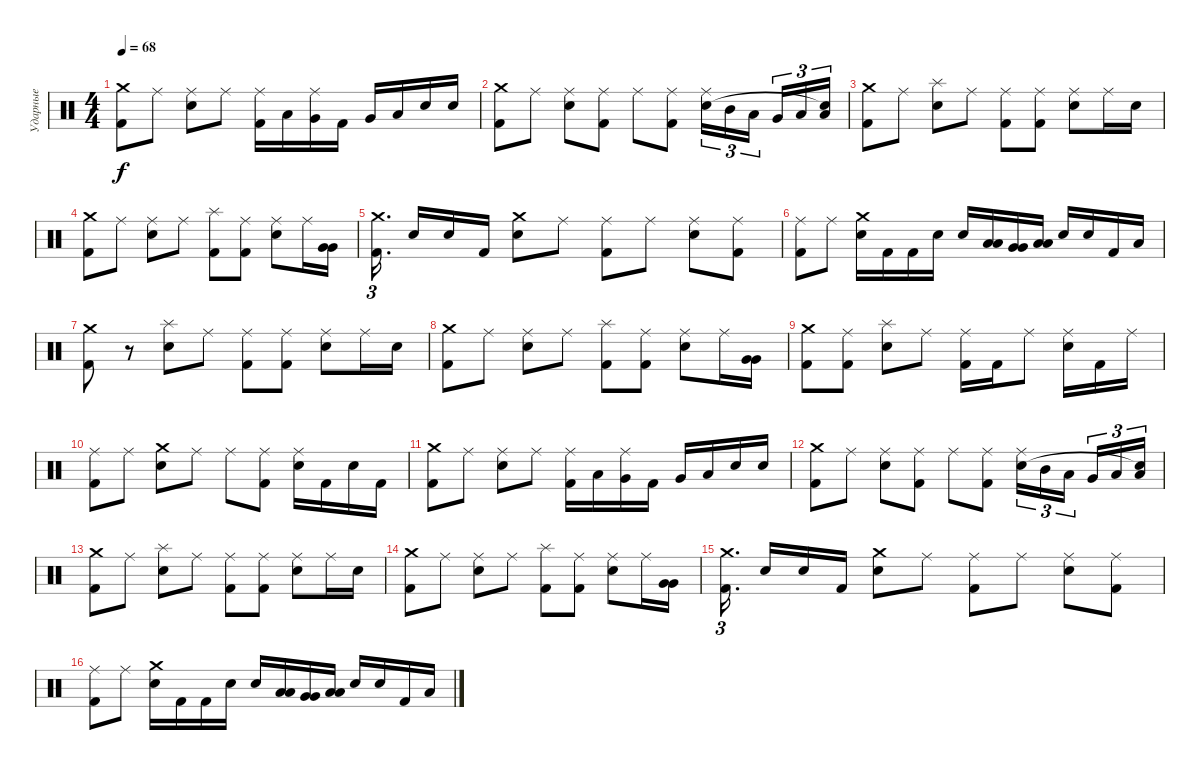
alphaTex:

\track ("Ударные" "Ударные") {instrument percussion}
\staff {score}
\articulation defaults
\ts (4 4)
\tempo 68
\clef neutral
\ks c
("Crash medium (hit)" "Kick (hit) 2").8{dy f} "Ride (middle)".8 ("Ride (middle)" "Snare (hit) 2").8 "Ride (middle)".8 ("Ride (middle)" "Kick (hit) 2").16 "Low Tom (hit)".16 ("Very Low Tom (hit)" "Ride (middle)").16 "Kick (hit) 2".16 "Very Low Tom (hit)".16 "Low Floor Tom (hit)".16 "Snare (hit) 2".16 "Snare (hit) 2".16 |
("Crash medium (hit)" "Kick (hit) 2").8 "Ride (middle)".8 ("Ride (middle)" "Snare (hit) 2").8 ("Ride (middle)" "Kick (hit) 2").8 "Ride (middle)".8 ("Ride (middle)" "Kick (hit) 2").8 ("Ride (middle)" "Snare (hit) 2").16{tu (3 2)} "Mid Tom (hit)".16{tu (3 2)} "Low Tom (hit)".16{tu (3 2) beam splitsecondary} "Very Low Tom (hit)".16{tu (3 2)} "Low Floor Tom (hit)".16{tu (3 2)} ("Low Floor Tom (hit)" "Snare (hit)"{t}).16{tu (3 2)} |
("Crash medium (hit)" "Kick (hit) 2").8 "Ride (middle)".8 ("Splash (hit)" "Snare (hit) 2").8 "Ride (middle)".8 ("Ride (middle)" "Kick (hit) 2").8 ("Ride (middle)" "Kick (hit) 2").8 ("Ride (middle)" "Snare (hit) 2").8 "Ride (middle)".16 "Snare (hit) 2".16 |
("Crash medium (hit)" "Kick (hit) 2").8 "Ride (middle)".8 ("Ride (middle)" "Snare (hit) 2").8 "Ride (middle)".8 ("Splash (hit)" "Kick (hit) 2").8 ("Ride (middle)" "Kick (hit) 2").8 ("Ride (middle)" "Snare (hit) 2").8 "Ride (middle)".16 ("Very Low Tom (hit)" "Very Low Tom (hit)").16{bd 120} |
("Crash medium (hit)" "Kick (hit) 2").16{d tu (3 2) beam splitsecondary} "Snare (hit) 2".16 "Snare (hit) 2".16 "Kick (hit) 2".16 ("Crash medium (hit)" "Snare (hit) 2").8 "Ride (middle)".8 ("Ride (middle)" "Kick (hit) 2").8 "Ride (middle)".8 ("Ride (middle)" "Snare (hit) 2").8 ("Ride (middle)" "Kick (hit) 2").8 |
("Ride (middle)" "Kick (hit) 2").8 "Ride (middle)".8 ("Crash medium (hit)" "Snare (hit) 2").16 "Kick (hit) 2".16 "Kick (hit) 2".16 "Snare (hit) 2".16 "Snare (hit) 2".16 ("Low Tom (hit)" "Low Tom (hit)").16{bd 120} ("Very Low Tom (hit)" "Very Low Tom (hit)").16{bu 120} ("Low Floor Tom (hit)" "Low Floor Tom (hit)").16{bd 120} "Snare (hit) 2".16 "Snare (hit) 2".16 "Kick (hit) 2".16 "Low Tom (hit)".16 |
("Crash medium (hit)" "Kick (hit) 2").8 r.8 ("Splash (hit)" "Snare (hit) 2").8 "Ride (middle)".8 ("Ride (middle)" "Kick (hit) 2").8 ("Ride (middle)" "Kick (hit) 2").8 ("Ride (middle)" "Snare (hit) 2").8 "Ride (middle)".16 "Snare (hit) 2".16 |
("Crash medium (hit)" "Kick (hit) 2").8 "Ride (middle)".8 ("Ride (middle)" "Snare (hit) 2").8 "Ride (middle)".8 ("Splash (hit)" "Kick (hit) 2").8 ("Ride (middle)" "Kick (hit) 2").8 ("Ride (middle)" "Snare (hit) 2").8 "Ride (middle)".16 ("Very Low Tom (hit)" "Very Low Tom (hit)").16{bd 120} |
("Crash medium (hit)" "Kick (hit) 2").8 ("Ride (middle)" "Kick (hit) 2").8 ("Splash (hit)" "Snare (hit) 2").8 "Ride (middle)".8 ("Ride (middle)" "Kick (hit) 2").16 "Kick (hit) 2".16 "Ride (middle)".8 ("Ride (middle)" "Snare (hit) 2").16 "Kick (hit) 2".16 "Ride (middle)".16 |
("Ride (middle)" "Kick (hit) 2").8 "Ride (middle)".8 ("Crash medium (hit)" "Snare (hit) 2").8 "Ride (middle)".8 "Ride (middle)".8 ("Ride (middle)" "Kick (hit) 2").8 ("Ride (middle)" "Snare (hit) 2").16 "Kick (hit) 2".16 "Snare (hit) 2".16 "Kick (hit) 2".16 |
("Crash medium (hit)" "Kick (hit) 2").8 "Ride (middle)".8 ("Ride (middle)" "Snare (hit) 2").8 "Ride (middle)".8 ("Ride (middle)" "Kick (hit) 2").16 "Low Tom (hit)".16 ("Very Low Tom (hit)" "Ride (middle)").16 "Kick (hit) 2".16 "Very Low Tom (hit)".16 "Low Floor Tom (hit)".16 "Snare (hit) 2".16 "Snare (hit) 2".16 |
("Crash medium (hit)" "Kick (hit) 2").8 "Ride (middle)".8 ("Ride (middle)" "Snare (hit) 2").8 ("Ride (middle)" "Kick (hit) 2").8 "Ride (middle)".8 ("Ride (middle)" "Kick (hit) 2").8 ("Ride (middle)" "Snare (hit) 2").16{tu (3 2)} "Mid Tom (hit)".16{tu (3 2)} "Low Tom (hit)".16{tu (3 2) beam splitsecondary} "Very Low Tom (hit)".16{tu (3 2)} "Low Floor Tom (hit)".16{tu (3 2)} ("Low Floor Tom (hit)" "Snare (hit)"{t}).16{tu (3 2)} |
("Crash medium (hit)" "Kick (hit) 2").8 "Ride (middle)".8 ("Splash (hit)" "Snare (hit) 2").8 "Ride (middle)".8 ("Ride (middle)" "Kick (hit) 2").8 ("Ride (middle)" "Kick (hit) 2").8 ("Ride (middle)" "Snare (hit) 2").8 "Ride (middle)".16 "Snare (hit) 2".16 |
("Crash medium (hit)" "Kick (hit) 2").8 "Ride (middle)".8 ("Ride (middle)" "Snare (hit) 2").8 "Ride (middle)".8 ("Splash (hit)" "Kick (hit) 2").8 ("Ride (middle)" "Kick (hit) 2").8 ("Ride (middle)" "Snare (hit) 2").8 "Ride (middle)".16 ("Very Low Tom (hit)" "Very Low Tom (hit)").16{bd 120} |
("Crash medium (hit)" "Kick (hit) 2").16{d tu (3 2) beam splitsecondary} "Snare (hit) 2".16 "Snare (hit) 2".16 "Kick (hit) 2".16 ("Crash medium (hit)" "Snare (hit) 2").8 "Ride (middle)".8 ("Ride (middle)" "Kick (hit) 2").8 "Ride (middle)".8 ("Ride (middle)" "Snare (hit) 2").8 ("Ride (middle)" "Kick (hit) 2").8 |
("Ride (middle)" "Kick (hit) 2").8 "Ride (middle)".8 ("Crash medium (hit)" "Snare (hit) 2").16 "Kick (hit) 2".16 "Kick (hit) 2".16 "Snare (hit) 2".16 "Snare (hit) 2".16 ("Low Tom (hit)" "Low Tom (hit)").16{bd 120} ("Very Low Tom (hit)" "Very Low Tom (hit)").16{bu 120} ("Low Floor Tom (hit)" "Low Floor Tom (hit)").16{bd 120} "Snare (hit) 2".16 "Snare (hit) 2".16 "Kick (hit) 2".16 "Low Tom (hit)".16
